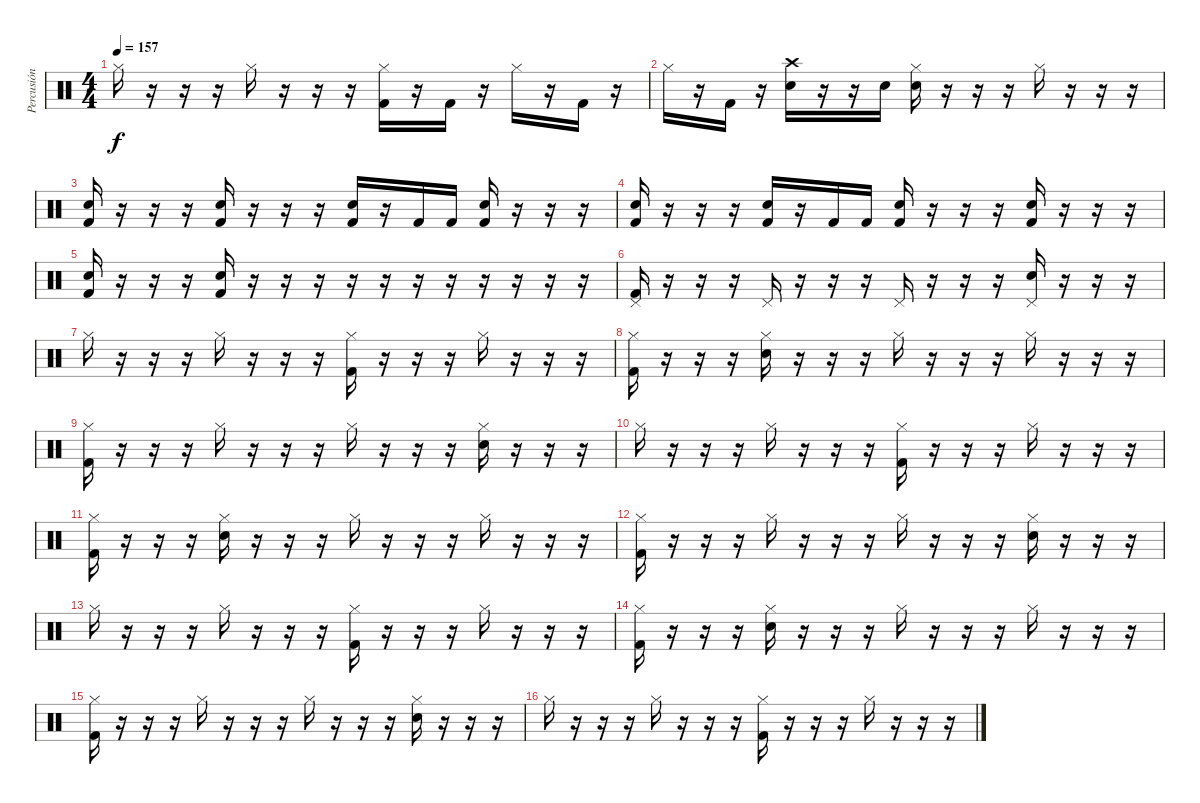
\track ("Percusión" "Percusión") {instrument percussion}
\staff {score}
\articulation defaults
\ts (4 4)
\tempo 157
\clef neutral
\ks c "Hi-Hat (closed)".16{dy f}
r.16 r.16 r.16 "Hi-Hat (closed)".16 r.16 r.16 r.16 ("Hi-Hat (closed)" "Kick (hit) 2").16 r.16 "Kick (hit) 2".16 r.16 "Hi-Hat (closed)".16 r.16 "Kick (hit) 2".16 r.16 |
"Hi-Hat (closed)".16 r.16 "Kick (hit) 2".16 r.16 ("Crash high (hit)" "Electric Snare (hit)").16 r.16 r.16 "Electric Snare (hit)".16 ("Hi-Hat (closed)" "Electric Snare (hit)").16 r.16 r.16 r.16 "Hi-Hat (closed)".16 r.16 r.16 r.16 |
("Electric Snare (hit)" "Kick (hit) 2").16 r.16 r.16 r.16 ("Electric Snare (hit)" "Kick (hit) 2").16 r.16 r.16 r.16 ("Electric Snare (hit)" "Kick (hit) 2").16 r.16 "Kick (hit) 2".16 "Kick (hit) 2".16 ("Electric Snare (hit)" "Kick (hit) 2").16 r.16 r.16 r.16 |
("Electric Snare (hit)" "Kick (hit) 2").16 r.16 r.16 r.16 ("Electric Snare (hit)" "Kick (hit) 2").16 r.16 "Kick (hit) 2".16 "Kick (hit) 2".16 ("Electric Snare (hit)" "Kick (hit) 2").16 r.16 r.16 r.16 ("Electric Snare (hit)" "Kick (hit) 2").16 r.16 r.16 r.16 |
("Electric Snare (hit)" "Kick (hit) 2").16 r.16 r.16 r.16 ("Electric Snare (hit)" "Kick (hit) 2").16 r.16 r.16 r.16 r.16 r.16 r.16 r.16 r.16 r.16 r.16 r.16 |
("Pedal Hi-Hat (hit)" "Kick (hit) 2").16 r.16 r.16 r.16 "Pedal Hi-Hat (hit)".16 r.16 r.16 r.16 "Pedal Hi-Hat (hit)".16 r.16 r.16 r.16 ("Pedal Hi-Hat (hit)" "Electric Snare (hit)").16 r.16 r.16 r.16 |
"Hi-Hat (closed)".16 r.16 r.16 r.16 "Hi-Hat (closed)".16 r.16 r.16 r.16 ("Hi-Hat (closed)" "Kick (hit) 2").16 r.16 r.16 r.16 "Hi-Hat (closed)".16 r.16 r.16 r.16 |
("Hi-Hat (closed)" "Kick (hit) 2").16 r.16 r.16 r.16 ("Hi-Hat (closed)" "Electric Snare (hit)").16 r.16 r.16 r.16 "Hi-Hat (closed)".16 r.16 r.16 r.16 "Hi-Hat (closed)".16 r.16 r.16 r.16 |
("Hi-Hat (closed)" "Kick (hit) 2").16 r.16 r.16 r.16 "Hi-Hat (closed)".16 r.16 r.16 r.16 "Hi-Hat (closed)".16 r.16 r.16 r.16 ("Hi-Hat (closed)" "Electric Snare (hit)").16 r.16 r.16 r.16 |
"Hi-Hat (closed)".16 r.16 r.16 r.16 "Hi-Hat (closed)".16 r.16 r.16 r.16 ("Hi-Hat (closed)" "Kick (hit) 2").16 r.16 r.16 r.16 "Hi-Hat (closed)".16 r.16 r.16 r.16 |
("Hi-Hat (closed)" "Kick (hit) 2").16 r.16 r.16 r.16 ("Hi-Hat (closed)" "Electric Snare (hit)").16 r.16 r.16 r.16 "Hi-Hat (closed)".16 r.16 r.16 r.16 "Hi-Hat (closed)".16 r.16 r.16 r.16 |
("Hi-Hat (closed)" "Kick (hit) 2").16 r.16 r.16 r.16 "Hi-Hat (closed)".16 r.16 r.16 r.16 "Hi-Hat (closed)".16 r.16 r.16 r.16 ("Hi-Hat (closed)" "Electric Snare (hit)").16 r.16 r.16 r.16 |
"Hi-Hat (closed)".16 r.16 r.16 r.16 "Hi-Hat (closed)".16 r.16 r.16 r.16 ("Hi-Hat (closed)" "Kick (hit) 2").16 r.16 r.16 r.16 "Hi-Hat (closed)".16 r.16 r.16 r.16 |
("Hi-Hat (closed)" "Kick (hit) 2").16 r.16 r.16 r.16 ("Hi-Hat (closed)" "Electric Snare (hit)").16 r.16 r.16 r.16 "Hi-Hat (closed)".16 r.16 r.16 r.16 "Hi-Hat (closed)".16 r.16 r.16 r.16 |
("Hi-Hat (closed)" "Kick (hit) 2").16 r.16 r.16 r.16 "Hi-Hat (closed)".16 r.16 r.16 r.16 "Hi-Hat (closed)".16 r.16 r.16 r.16 ("Hi-Hat (closed)" "Electric Snare (hit)").16 r.16 r.16 r.16 |
"Hi-Hat (closed)".16 r.16 r.16 r.16 "Hi-Hat (closed)".16 r.16 r.16 r.16 ("Hi-Hat (closed)" "Kick (hit) 2").16 r.16 r.16 r.16 "Hi-Hat (closed)".16 r.16 r.16 r.16
